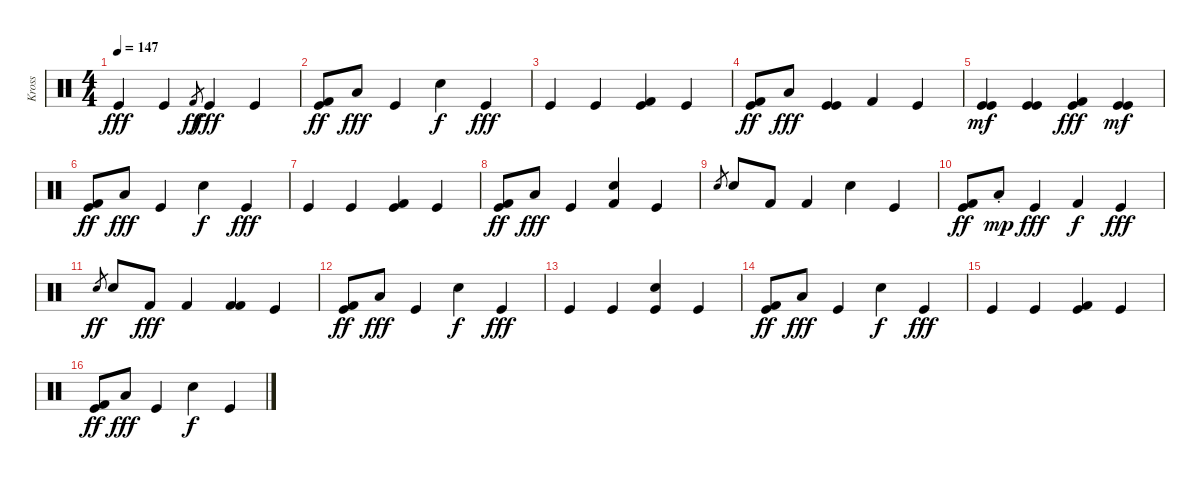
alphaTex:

\track ("Kross" "Kross") {instrument percussion}
\staff {score}
\articulation defaults
\ts (4 4)
\tempo 147
\clef neutral
\ks c "Kick (hit)".4{dy fff} "Kick (hit)".4 "Kick (hit) 2".8{gr dy ff} "Kick (hit)".4{dy fff} "Kick (hit)".4
|
("Kick (hit)" "Kick (hit) 2").8{dy ff} "Low Tom (hit)".8{dy fff} "Kick (hit)".4 "Snare (hit) 2".4{dy f} "Kick (hit)".4{dy fff} |
"Kick (hit)".4 "Kick (hit)".4 ("Kick (hit)" "Kick (hit) 2").4 "Kick (hit)".4 |
("Kick (hit)" "Kick (hit) 2").8{dy ff} "Low Tom (hit)".8{dy fff} ("Kick (hit)" "Kick (hit)").4 "Kick (hit) 2".4 "Kick (hit)".4 |
("Kick (hit)" "Kick (hit)").4{dy mf} ("Kick (hit)" "Kick (hit)").4 ("Kick (hit) 2" "Kick (hit)").4{dy fff} ("Kick (hit)" "Kick (hit)").4{dy mf} |
("Kick (hit)" "Kick (hit) 2").8{dy ff} "Low Tom (hit)".8{dy fff} "Kick (hit)".4 "Snare (hit) 2".4{dy f} "Kick (hit)".4{dy fff} |
"Kick (hit)".4 "Kick (hit)".4 ("Kick (hit) 2" "Kick (hit)").4 "Kick (hit)".4 |
("Kick (hit)" "Kick (hit) 2").8{dy ff} "Low Tom (hit)".8{dy fff} "Kick (hit)".4 ("Snare (hit) 2" "Kick (hit) 2").4 "Kick (hit)".4 |
"Electric Snare (hit)".8{gr} "Electric Snare (hit)".8 "Kick (hit) 2".8 "Kick (hit) 2".4 "Snare (hit) 2".4 "Kick (hit)".4 |
("Kick (hit)" "Kick (hit) 2").8{dy ff} "Low Tom (hit)"{st}.8{dy mp} "Kick (hit)".4{dy fff} "Kick (hit) 2".4{dy f} "Kick (hit)".4{dy fff} |
"Electric Snare (hit)".8{gr dy ff} "Electric Snare (hit)".8 "Kick (hit) 2".8{dy fff} "Kick (hit) 2".4 ("Kick (hit) 2" "Kick (hit) 2").4 "Kick (hit)".4 |
("Kick (hit)" "Kick (hit) 2").8{dy ff} "Low Tom (hit)".8{dy fff} "Kick (hit)".4 "Snare (hit) 2".4{dy f} "Kick (hit)".4{dy fff} |
"Kick (hit)".4 "Kick (hit)".4 ("Snare (hit) 2" "Kick (hit)").4 "Kick (hit)".4 |
("Kick (hit)" "Kick (hit) 2").8{dy ff} "Low Tom (hit)".8{dy fff} "Kick (hit)".4 "Snare (hit) 2".4{dy f} "Kick (hit)".4{dy fff} |
"Kick (hit)".4 "Kick (hit)".4 ("Kick (hit) 2" "Kick (hit)").4 "Kick (hit)".4 |
("Kick (hit)" "Kick (hit) 2").8{dy ff} "Low Tom (hit)".8{dy fff} "Kick (hit)".4 "Snare (hit) 2".4{dy f} "Kick (hit)".4
